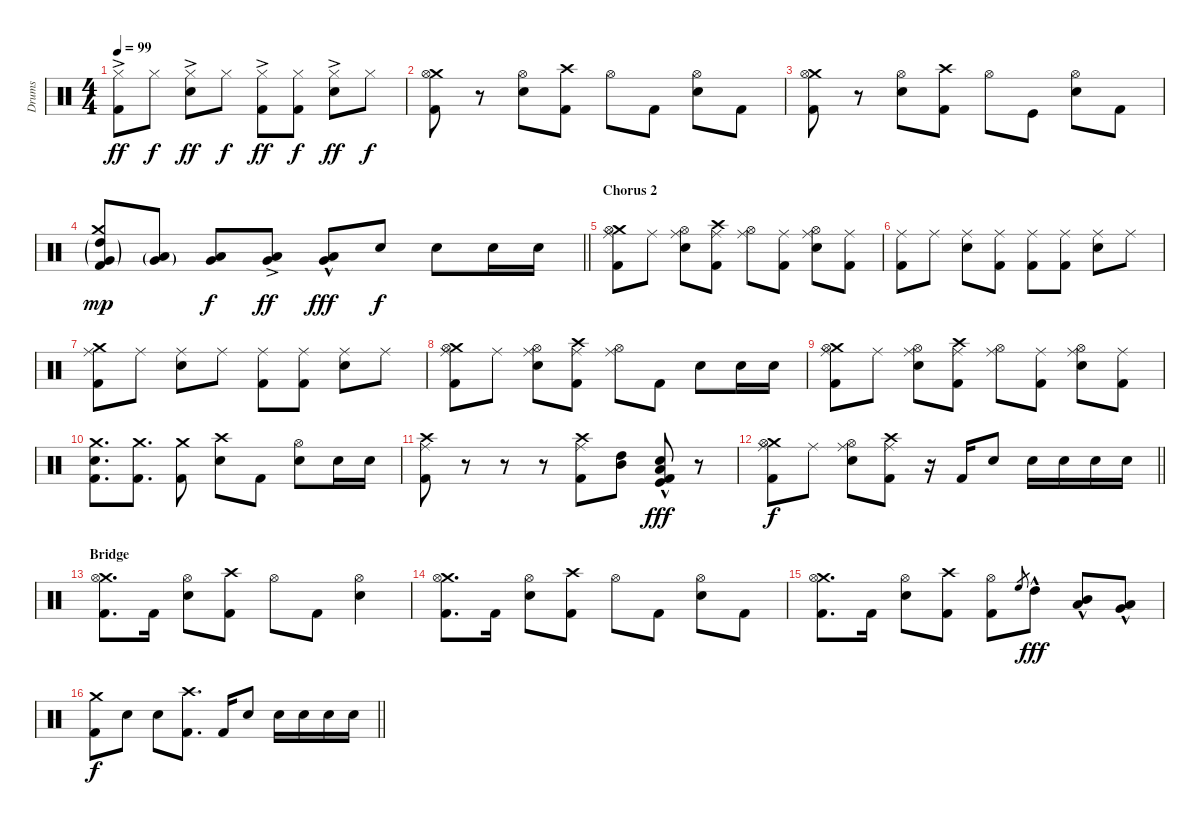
\track ("Drums" "Drums") {instrument percussion}
\staff {score}
\articulation defaults
\ts (4 4)
\tempo 99
\clef neutral
\ks c
("Hi-Hat (closed)"{ac} "Kick (hit) 2").8{dy ff} "Hi-Hat (closed)".8{dy f} ("Hi-Hat (closed)"{ac} "Electric Snare (hit)").8{dy ff} "Hi-Hat (closed)".8{dy f} ("Hi-Hat (closed)"{ac} "Kick (hit) 2").8{dy ff} ("Hi-Hat (closed)" "Kick (hit) 2").8{dy f} ("Hi-Hat (closed)"{ac} "Electric Snare (hit)").8{dy ff} "Hi-Hat (closed)".8{dy f} |
("Crash medium (hit)" "Kick (hit) 2" "Hi-Hat (open)").8 r.8 ("Electric Snare (hit)" "Hi-Hat (open)").8 ("Crash high (hit)" "Kick (hit) 2").8 "Hi-Hat (open)".8 "Kick (hit) 2".8 ("Electric Snare (hit)" "Hi-Hat (open)").8 "Kick (hit) 2".8 |
("Crash medium (hit)" "Kick (hit) 2" "Hi-Hat (open)").8 r.8 ("Electric Snare (hit)" "Hi-Hat (open)").8 ("Crash high (hit)" "Kick (hit) 2").8 "Hi-Hat (open)".8 "Kick (hit)".8 ("Electric Snare (hit)" "Hi-Hat (open)").8 "Kick (hit) 2".8 |
\barLineRight lightlight
("Crash medium (hit)" "Very Low Tom (hit)"{g} "High Tom (hit)"{g} "Kick (hit) 2").8{dy mp} ("Very Low Tom (hit)"{g} "Low Tom (hit)"{g}).8 ("Very Low Tom (hit)" "Low Tom (hit)").8{dy f} ("Very Low Tom (hit)"{ac} "Low Tom (hit)"{ac}).8{dy ff} ("Very Low Tom (hit)"{hac} "Low Floor Tom (hit)"{hac}).8{dy fff} "Electric Snare (hit)".8{dy f} "Electric Snare (hit)".8 "Electric Snare (hit)".16 "Electric Snare (hit)".16 |
\section ("" "Chorus 2")
("Crash medium (hit)" "Kick (hit) 2" "Hi-Hat (open)" "Ride (middle)").8 "Ride (middle)".8 ("Electric Snare (hit)" "Hi-Hat (open)" "Ride (middle)").8 ("Crash high (hit)" "Kick (hit) 2" "Ride (middle)").8 ("Hi-Hat (open)" "Ride (middle)").8 ("Kick (hit) 2" "Ride (middle)").8 ("Electric Snare (hit)" "Hi-Hat (open)" "Ride (middle)").8 ("Kick (hit) 2" "Ride (middle)").8 |
("Kick (hit) 2" "Ride (middle)").8 "Ride (middle)".8 ("Electric Snare (hit)" "Ride (middle)").8 ("Kick (hit) 2" "Ride (middle)").8 ("Kick (hit) 2" "Ride (middle)").8 ("Kick (hit) 2" "Ride (middle)").8 ("Electric Snare (hit)" "Ride (middle)").8 "Ride (middle)".8 |
("Crash medium (hit)" "Kick (hit) 2" "Ride (middle)").8 "Ride (middle)".8 ("Electric Snare (hit)" "Ride (middle)").8 "Ride (middle)".8 ("Kick (hit) 2" "Ride (middle)").8 ("Kick (hit) 2" "Ride (middle)").8 ("Electric Snare (hit)" "Ride (middle)").8 "Ride (middle)".8 |
("Crash medium (hit)" "Kick (hit) 2" "Hi-Hat (open)" "Ride (middle)").8 "Ride (middle)".8 ("Electric Snare (hit)" "Hi-Hat (open)" "Ride (middle)").8 ("Crash high (hit)" "Kick (hit) 2" "Ride (middle)").8 ("Hi-Hat (open)" "Ride (middle)").8 "Kick (hit) 2".8 "Electric Snare (hit)".8 "Electric Snare (hit)".16 "Electric Snare (hit)".16 |
("Crash medium (hit)" "Kick (hit) 2" "Hi-Hat (open)" "Ride (middle)").8 "Ride (middle)".8 ("Electric Snare (hit)" "Hi-Hat (open)" "Ride (middle)").8 ("Crash high (hit)" "Kick (hit) 2" "Ride (middle)").8 ("Hi-Hat (open)" "Ride (middle)").8 ("Kick (hit) 2" "Ride (middle)").8 ("Electric Snare (hit)" "Hi-Hat (open)" "Ride (middle)").8 ("Kick (hit) 2" "Ride (middle)").8 |
("Crash medium (hit)" "Kick (hit) 2" "Electric Snare (hit)").8{d} ("Crash medium (hit)" "Kick (hit) 2").8{d} ("Crash medium (hit)" "Kick (hit) 2").8 ("Crash high (hit)" "Electric Snare (hit)").8 "Kick (hit) 2".8 ("Electric Snare (hit)" "Hi-Hat (open)").8 "Electric Snare (hit)".16 "Electric Snare (hit)".16 |
("Crash high (hit)" "Kick (hit) 2" "Ride (middle)").8 r.8 r.8 r.8 ("Crash high (hit)" "Kick (hit) 2" "Ride (middle)").8 ("Mid Tom (hit)" "High Tom (hit)").8 ("Low Floor Tom (hit)"{hac} "Electric Snare (hit)"{hac} "Kick (hit) 2"{hac} "Kick (hit)"{hac}).8{dy fff} r.8 |
\barLineRight lightlight
("Crash medium (hit)" "Kick (hit) 2" "Ride (middle)" "Hi-Hat (open)").8{dy f} "Ride (middle)".8 ("Electric Snare (hit)" "Ride (middle)" "Hi-Hat (open)").8 ("Crash high (hit)" "Kick (hit) 2" "Ride (middle)").8 r.16 "Kick (hit) 2".16 "Electric Snare (hit)".8 "Electric Snare (hit)".16 "Electric Snare (hit)".16 "Electric Snare (hit)".16 "Electric Snare (hit)".16 |
\section ("" "Bridge")
("Crash medium (hit)" "Kick (hit) 2" "Hi-Hat (open)").8{d} "Kick (hit) 2".16 ("Electric Snare (hit)" "Hi-Hat (open)").8 ("Crash high (hit)" "Kick (hit) 2").8 "Hi-Hat (open)".8 "Kick (hit) 2".8 ("Electric Snare (hit)" "Hi-Hat (open)").4 |
("Crash medium (hit)" "Kick (hit) 2" "Hi-Hat (open)").8{d} "Kick (hit) 2".16 ("Electric Snare (hit)" "Hi-Hat (open)").8 ("Crash high (hit)" "Kick (hit) 2").8 "Hi-Hat (open)".8 "Kick (hit) 2".8 ("Electric Snare (hit)" "Hi-Hat (open)").8 "Kick (hit) 2".8 |
("Crash medium (hit)" "Kick (hit) 2" "Hi-Hat (open)").8{d} "Kick (hit) 2".16 ("Electric Snare (hit)" "Hi-Hat (open)").8 ("Crash high (hit)" "Kick (hit) 2").8 ("Kick (hit) 2" "Hi-Hat (open)").8 "High Floor Tom (hit)".8{gr} "High Tom (hit)"{hac}.8{dy fff} ("Mid Tom (hit)"{hac} "Low Tom (hit)"{hac}).8 ("Very Low Tom (hit)"{hac} "Low Floor Tom (hit)"{hac}).8 |
\barLineRight lightlight
("Crash medium (hit)" "Kick (hit) 2").8{dy f} "Electric Snare (hit)".8 "Electric Snare (hit)".8 ("Crash high (hit)" "Kick (hit) 2").8{d} "Kick (hit) 2".16 "Electric Snare (hit)".8 "Electric Snare (hit)".16 "Electric Snare (hit)".16 "Electric Snare (hit)".16 "Electric Snare (hit)".16
